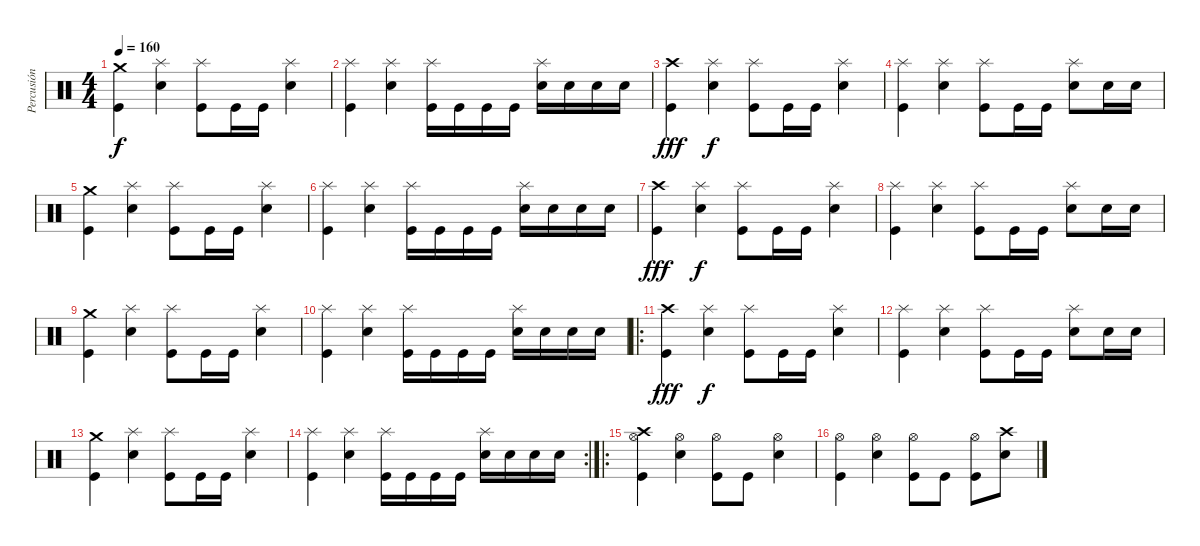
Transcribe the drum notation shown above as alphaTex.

\track ("Percusión" "Percusión") {instrument percussion}
\staff {score}
\articulation defaults
\ts (4 4)
\tempo 160
\clef neutral
\ks c
("Crash medium (hit)" "Kick (hit)").4{dy f} ("Splash (hit)" "Electric Snare (hit)").4 ("Splash (hit)" "Kick (hit)").8 "Kick (hit)".16 "Kick (hit)".16 ("Splash (hit)" "Electric Snare (hit)").4 |
("Splash (hit)" "Kick (hit)").4 ("Splash (hit)" "Electric Snare (hit)").4 ("Splash (hit)" "Kick (hit)").16 "Kick (hit)".16 "Kick (hit)".16 "Kick (hit)".16 ("Splash (hit)" "Electric Snare (hit)").16 "Electric Snare (hit)".16 "Electric Snare (hit)".16 "Electric Snare (hit)".16 |
("Crash high (hit)" "Kick (hit)").4{dy fff} ("Splash (hit)" "Electric Snare (hit)").4{dy f} ("Splash (hit)" "Kick (hit)").8 "Kick (hit)".16 "Kick (hit)".16 ("Splash (hit)" "Electric Snare (hit)").4 |
("Splash (hit)" "Kick (hit)").4 ("Splash (hit)" "Electric Snare (hit)").4 ("Splash (hit)" "Kick (hit)").8 "Kick (hit)".16 "Kick (hit)".16 ("Splash (hit)" "Electric Snare (hit)").8 "Electric Snare (hit)".16 "Electric Snare (hit)".16 |
("Crash medium (hit)" "Kick (hit)").4 ("Splash (hit)" "Electric Snare (hit)").4 ("Splash (hit)" "Kick (hit)").8 "Kick (hit)".16 "Kick (hit)".16 ("Splash (hit)" "Electric Snare (hit)").4 |
("Splash (hit)" "Kick (hit)").4 ("Splash (hit)" "Electric Snare (hit)").4 ("Splash (hit)" "Kick (hit)").16 "Kick (hit)".16 "Kick (hit)".16 "Kick (hit)".16 ("Splash (hit)" "Electric Snare (hit)").16 "Electric Snare (hit)".16 "Electric Snare (hit)".16 "Electric Snare (hit)".16 |
("Crash high (hit)" "Kick (hit)").4{dy fff} ("Splash (hit)" "Electric Snare (hit)").4{dy f} ("Splash (hit)" "Kick (hit)").8 "Kick (hit)".16 "Kick (hit)".16 ("Splash (hit)" "Electric Snare (hit)").4 |
("Splash (hit)" "Kick (hit)").4 ("Splash (hit)" "Electric Snare (hit)").4 ("Splash (hit)" "Kick (hit)").8 "Kick (hit)".16 "Kick (hit)".16 ("Splash (hit)" "Electric Snare (hit)").8 "Electric Snare (hit)".16 "Electric Snare (hit)".16 |
("Crash medium (hit)" "Kick (hit)").4 ("Splash (hit)" "Electric Snare (hit)").4 ("Splash (hit)" "Kick (hit)").8 "Kick (hit)".16 "Kick (hit)".16 ("Splash (hit)" "Electric Snare (hit)").4 |
("Splash (hit)" "Kick (hit)").4 ("Splash (hit)" "Electric Snare (hit)").4 ("Splash (hit)" "Kick (hit)").16 "Kick (hit)".16 "Kick (hit)".16 "Kick (hit)".16 ("Splash (hit)" "Electric Snare (hit)").16 "Electric Snare (hit)".16 "Electric Snare (hit)".16 "Electric Snare (hit)".16 |
\ro
("Crash high (hit)" "Kick (hit)").4{dy fff} ("Splash (hit)" "Electric Snare (hit)").4{dy f} ("Splash (hit)" "Kick (hit)").8 "Kick (hit)".16 "Kick (hit)".16 ("Splash (hit)" "Electric Snare (hit)").4 |
("Splash (hit)" "Kick (hit)").4 ("Splash (hit)" "Electric Snare (hit)").4 ("Splash (hit)" "Kick (hit)").8 "Kick (hit)".16 "Kick (hit)".16 ("Splash (hit)" "Electric Snare (hit)").8 "Electric Snare (hit)".16 "Electric Snare (hit)".16 |
("Crash medium (hit)" "Kick (hit)").4 ("Splash (hit)" "Electric Snare (hit)").4 ("Splash (hit)" "Kick (hit)").8 "Kick (hit)".16 "Kick (hit)".16 ("Splash (hit)" "Electric Snare (hit)").4 |
\rc 2
("Splash (hit)" "Kick (hit)").4 ("Splash (hit)" "Electric Snare (hit)").4 ("Splash (hit)" "Kick (hit)").16 "Kick (hit)".16 "Kick (hit)".16 "Kick (hit)".16 ("Splash (hit)" "Electric Snare (hit)").16 "Electric Snare (hit)".16 "Electric Snare (hit)".16 "Electric Snare (hit)".16 |
\ro
("Crash high (hit)" "Hi-Hat (open)" "Kick (hit)").4 ("Hi-Hat (open)" "Electric Snare (hit)").4 ("Hi-Hat (open)" "Kick (hit)").8 "Kick (hit)".8 ("Hi-Hat (open)" "Electric Snare (hit)").4 |
("Hi-Hat (open)" "Kick (hit)").4 ("Hi-Hat (open)" "Electric Snare (hit)").4 ("Hi-Hat (open)" "Kick (hit)").8 "Kick (hit)".8 ("Hi-Hat (open)" "Kick (hit)").8 ("Crash high (hit)" "Electric Snare (hit)").8
